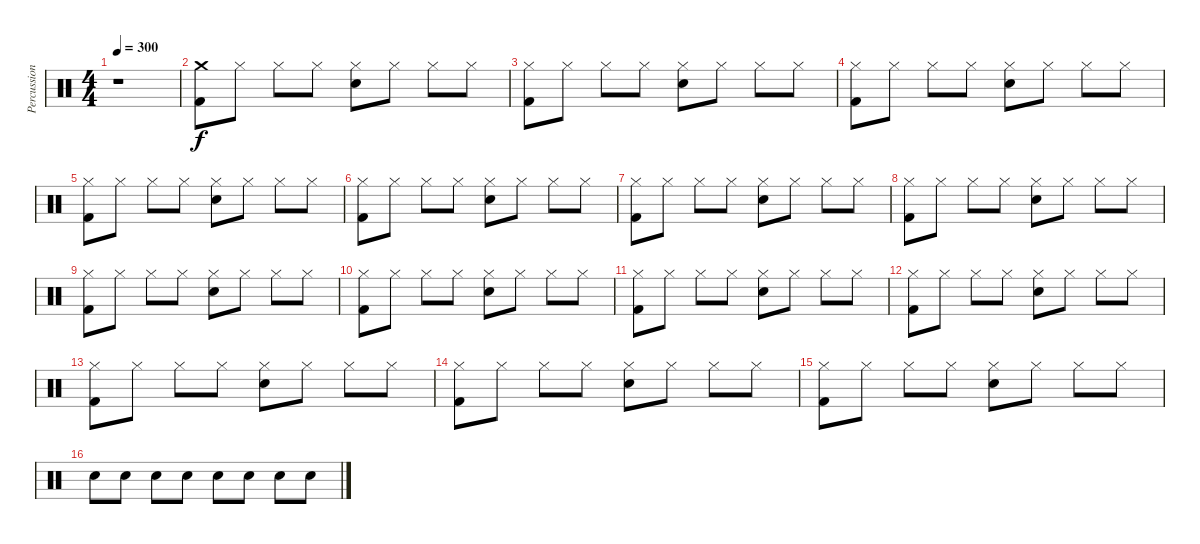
\track ("Percussion" "Percussion") {instrument percussion}
\staff {score}
\articulation defaults
\ts (4 4)
\tempo 300
\clef neutral
\ks c
r.1{dy f} |
("Crash medium (hit)" "Kick (hit) 2").8 "Hi-Hat (closed)".8 "Hi-Hat (closed)".8 "Hi-Hat (closed)".8 ("Snare (hit) 2" "Hi-Hat (closed)").8 "Hi-Hat (closed)".8 "Hi-Hat (closed)".8 "Hi-Hat (closed)".8 |
("Kick (hit) 2" "Hi-Hat (closed)").8 "Hi-Hat (closed)".8 "Hi-Hat (closed)".8 "Hi-Hat (closed)".8 ("Snare (hit) 2" "Hi-Hat (closed)").8 "Hi-Hat (closed)".8 "Hi-Hat (closed)".8 "Hi-Hat (closed)".8 |
("Kick (hit) 2" "Hi-Hat (closed)").8 "Hi-Hat (closed)".8 "Hi-Hat (closed)".8 "Hi-Hat (closed)".8 ("Snare (hit) 2" "Hi-Hat (closed)").8 "Hi-Hat (closed)".8 "Hi-Hat (closed)".8 "Hi-Hat (closed)".8 |
("Kick (hit) 2" "Hi-Hat (closed)").8 "Hi-Hat (closed)".8 "Hi-Hat (closed)".8 "Hi-Hat (closed)".8 ("Snare (hit) 2" "Hi-Hat (closed)").8 "Hi-Hat (closed)".8 "Hi-Hat (closed)".8 "Hi-Hat (closed)".8 |
("Kick (hit) 2" "Hi-Hat (closed)").8 "Hi-Hat (closed)".8 "Hi-Hat (closed)".8 "Hi-Hat (closed)".8 ("Snare (hit) 2" "Hi-Hat (closed)").8 "Hi-Hat (closed)".8 "Hi-Hat (closed)".8 "Hi-Hat (closed)".8 |
("Kick (hit) 2" "Hi-Hat (closed)").8 "Hi-Hat (closed)".8 "Hi-Hat (closed)".8 "Hi-Hat (closed)".8 ("Snare (hit) 2" "Hi-Hat (closed)").8 "Hi-Hat (closed)".8 "Hi-Hat (closed)".8 "Hi-Hat (closed)".8 |
("Kick (hit) 2" "Hi-Hat (closed)").8 "Hi-Hat (closed)".8 "Hi-Hat (closed)".8 "Hi-Hat (closed)".8 ("Snare (hit) 2" "Hi-Hat (closed)").8 "Hi-Hat (closed)".8 "Hi-Hat (closed)".8 "Hi-Hat (closed)".8 |
("Kick (hit) 2" "Hi-Hat (closed)").8 "Hi-Hat (closed)".8 "Hi-Hat (closed)".8 "Hi-Hat (closed)".8 ("Snare (hit) 2" "Hi-Hat (closed)").8 "Hi-Hat (closed)".8 "Hi-Hat (closed)".8 "Hi-Hat (closed)".8 |
("Kick (hit) 2" "Hi-Hat (closed)").8 "Hi-Hat (closed)".8 "Hi-Hat (closed)".8 "Hi-Hat (closed)".8 ("Snare (hit) 2" "Hi-Hat (closed)").8 "Hi-Hat (closed)".8 "Hi-Hat (closed)".8 "Hi-Hat (closed)".8 |
("Kick (hit) 2" "Hi-Hat (closed)").8 "Hi-Hat (closed)".8 "Hi-Hat (closed)".8 "Hi-Hat (closed)".8 ("Snare (hit) 2" "Hi-Hat (closed)").8 "Hi-Hat (closed)".8 "Hi-Hat (closed)".8 "Hi-Hat (closed)".8 |
("Kick (hit) 2" "Hi-Hat (closed)").8 "Hi-Hat (closed)".8 "Hi-Hat (closed)".8 "Hi-Hat (closed)".8 ("Snare (hit) 2" "Hi-Hat (closed)").8 "Hi-Hat (closed)".8 "Hi-Hat (closed)".8 "Hi-Hat (closed)".8 |
("Kick (hit) 2" "Hi-Hat (closed)").8 "Hi-Hat (closed)".8 "Hi-Hat (closed)".8 "Hi-Hat (closed)".8 ("Snare (hit) 2" "Hi-Hat (closed)").8 "Hi-Hat (closed)".8 "Hi-Hat (closed)".8 "Hi-Hat (closed)".8 |
("Kick (hit) 2" "Hi-Hat (closed)").8 "Hi-Hat (closed)".8 "Hi-Hat (closed)".8 "Hi-Hat (closed)".8 ("Snare (hit) 2" "Hi-Hat (closed)").8 "Hi-Hat (closed)".8 "Hi-Hat (closed)".8 "Hi-Hat (closed)".8 |
("Kick (hit) 2" "Hi-Hat (closed)").8 "Hi-Hat (closed)".8 "Hi-Hat (closed)".8 "Hi-Hat (closed)".8 ("Snare (hit) 2" "Hi-Hat (closed)").8 "Hi-Hat (closed)".8 "Hi-Hat (closed)".8 "Hi-Hat (closed)".8 |
"Snare (hit) 2".8 "Snare (hit) 2".8 "Snare (hit) 2".8 "Snare (hit) 2".8 "Snare (hit) 2".8 "Snare (hit) 2".8 "Snare (hit) 2".8 "Snare (hit) 2".8
